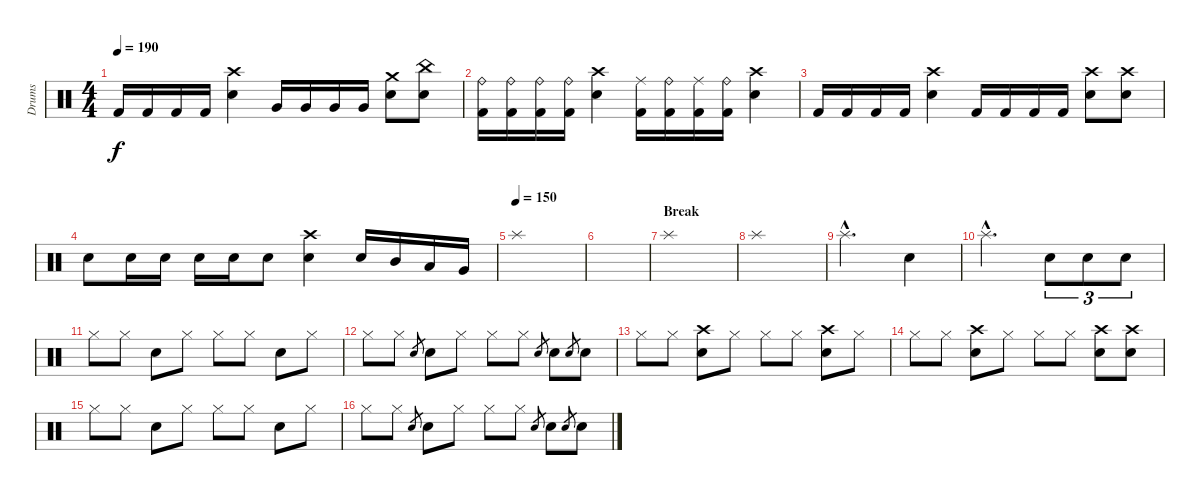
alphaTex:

\track ("Drums" "Drums") {instrument percussion}
\staff {score}
\articulation defaults
\ts (4 4)
\tempo 190
\clef neutral
\ks c "Kick (hit) 2".16{dy f} "Kick (hit) 2".16 "Kick (hit) 2".16 "Kick (hit) 2".16
("Electric Snare (hit)" "Crash high (hit)").4 "Very Low Tom (hit)".16 "Very Low Tom (hit)".16 "Very Low Tom (hit)".16 "Very Low Tom (hit)".16 ("Electric Snare (hit)" "Crash medium (hit)").8 ("Electric Snare (hit)" "China (hit)").8 |
("Kick (hit) 2" "Ride (bell)").16 ("Kick (hit) 2" "Ride (bell)").16 ("Kick (hit) 2" "Ride (bell)").16 ("Kick (hit) 2" "Ride (bell)").16 ("Electric Snare (hit)" "Crash high (hit)").4 ("Kick (hit) 2" "Ride (middle)").16 ("Kick (hit) 2" "Ride (bell)").16 ("Kick (hit) 2" "Ride (middle)").16 ("Kick (hit) 2" "Ride (bell)").16 ("Electric Snare (hit)" "Crash high (hit)").4 |
"Kick (hit) 2".16 "Kick (hit) 2".16 "Kick (hit) 2".16 "Kick (hit) 2".16 ("Electric Snare (hit)" "Crash high (hit)").4 "Kick (hit) 2".16 "Kick (hit) 2".16 "Kick (hit) 2".16 "Kick (hit) 2".16 ("Electric Snare (hit)" "Crash high (hit)").8 ("Electric Snare (hit)" "Crash high (hit)").8 |
"Electric Snare (hit)".8 "Electric Snare (hit)".16 "Electric Snare (hit)".16 "Electric Snare (hit)".16 "Electric Snare (hit)".16 "Electric Snare (hit)".8 ("Electric Snare (hit)" "Crash high (hit)").4 "Electric Snare (hit)".16 "Mid Tom (hit)".16 "Low Tom (hit)".16 "Very Low Tom (hit)".16 |
\tempo (150)
"Splash (hit)".1 |
|
\section ("" "Break")
"Splash (hit)".1 |
"Splash (hit)".1 |
"Splash (hit)"{hac}.2{d} "Electric Snare (hit)".4 |
"Splash (hit)"{hac}.2{d} "Electric Snare (hit)".8{tu (3 2)} "Electric Snare (hit)".8{tu (3 2)} "Electric Snare (hit)".8{tu (3 2)} |
"Hi-Hat (closed)".8 "Hi-Hat (closed)".8 "Electric Snare (hit)".8 "Hi-Hat (closed)".8 "Hi-Hat (closed)".8 "Hi-Hat (closed)".8 "Electric Snare (hit)".8 "Hi-Hat (closed)".8 |
"Hi-Hat (closed)".8 "Hi-Hat (closed)".8 "Electric Snare (hit)".8{gr} "Electric Snare (hit)".8 "Hi-Hat (closed)".8 "Hi-Hat (closed)".8 "Hi-Hat (closed)".8 "Electric Snare (hit)".8{gr} "Electric Snare (hit)".8 "Electric Snare (hit)".8{gr} "Electric Snare (hit)".8 |
"Hi-Hat (closed)".8 "Hi-Hat (closed)".8 ("Crash high (hit)" "Electric Snare (hit)").8 "Hi-Hat (closed)".8 "Hi-Hat (closed)".8 "Hi-Hat (closed)".8 ("Crash high (hit)" "Electric Snare (hit)").8 "Hi-Hat (closed)".8 |
"Hi-Hat (closed)".8 "Hi-Hat (closed)".8 ("Crash high (hit)" "Electric Snare (hit)").8 "Hi-Hat (closed)".8 "Hi-Hat (closed)".8 "Hi-Hat (closed)".8 ("Crash high (hit)" "Electric Snare (hit)").8 ("Crash high (hit)" "Electric Snare (hit)").8 |
"Hi-Hat (closed)".8 "Hi-Hat (closed)".8 "Electric Snare (hit)".8 "Hi-Hat (closed)".8 "Hi-Hat (closed)".8 "Hi-Hat (closed)".8 "Electric Snare (hit)".8 "Hi-Hat (closed)".8 |
"Hi-Hat (closed)".8 "Hi-Hat (closed)".8 "Electric Snare (hit)".8{gr} "Electric Snare (hit)".8 "Hi-Hat (closed)".8 "Hi-Hat (closed)".8 "Hi-Hat (closed)".8 "Electric Snare (hit)".8{gr} "Electric Snare (hit)".8 "Electric Snare (hit)".8{gr} "Electric Snare (hit)".8
